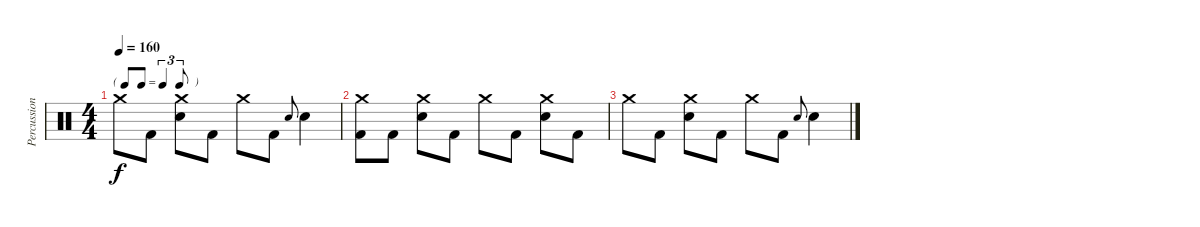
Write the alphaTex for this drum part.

\track ("Percussion" "Percussion") {instrument percussion}
\staff {score}
\articulation defaults
\ts (4 4)
\tf triplet8th
\tempo 160
\clef neutral
\ks c "Crash medium (hit)".8{dy f} "Kick (hit) 2".8
("Crash medium (hit)" "Electric Snare (hit)").8 "Kick (hit) 2".8 "Crash medium (hit)".8 "Kick (hit) 2".8 "Electric Snare (hit)".8{gr onbeat} "Electric Snare (hit)".4 |
("Crash medium (hit)" "Kick (hit) 2").8 "Kick (hit) 2".8 ("Crash medium (hit)" "Electric Snare (hit)").8 "Kick (hit) 2".8 "Crash medium (hit)".8 "Kick (hit) 2".8 ("Crash medium (hit)" "Electric Snare (hit)").8 "Kick (hit) 2".8 |
"Crash medium (hit)".8 "Kick (hit) 2".8 ("Crash medium (hit)" "Electric Snare (hit)").8 "Kick (hit) 2".8 "Crash medium (hit)".8 "Kick (hit) 2".8 "Electric Snare (hit)".8{gr onbeat} "Electric Snare (hit)".4
